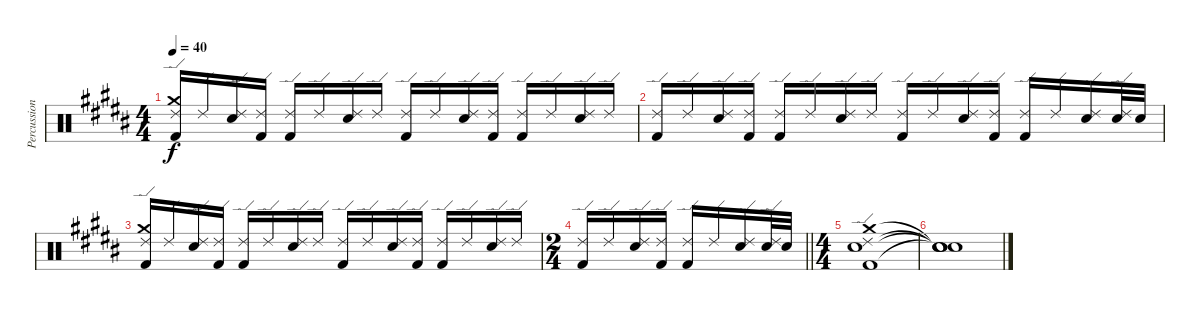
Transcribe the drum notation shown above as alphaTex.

\track ("Percussion" "Percussion") {instrument percussion}
\staff {score}
\articulation defaults
\ts (4 4)
\tempo 40
\clef neutral
\ks b
("Ride (edge) 2" "Crash medium (hit)" "Kick (hit) 2").16{dy f} "Ride (edge) 2".16 ("Ride (edge) 2" "Snare (hit) 2").16 ("Ride (edge) 2" "Kick (hit) 2").16 ("Ride (edge) 2" "Kick (hit) 2").16 "Ride (edge) 2".16 ("Ride (edge) 2" "Snare (hit) 2").16 "Ride (edge) 2".16 ("Ride (edge) 2" "Kick (hit) 2").16 "Ride (edge) 2".16 ("Ride (edge) 2" "Snare (hit) 2").16 ("Ride (edge) 2" "Kick (hit) 2").16 ("Ride (edge) 2" "Kick (hit) 2").16 "Ride (edge) 2".16 ("Ride (edge) 2" "Snare (hit) 2").16 "Ride (edge) 2".16 |
("Ride (edge) 2" "Kick (hit) 2").16 "Ride (edge) 2".16 ("Ride (edge) 2" "Snare (hit) 2").16 ("Ride (edge) 2" "Kick (hit) 2").16 ("Ride (edge) 2" "Kick (hit) 2").16 "Ride (edge) 2".16 ("Ride (edge) 2" "Snare (hit) 2").16 "Ride (edge) 2".16 ("Ride (edge) 2" "Kick (hit) 2").16 "Ride (edge) 2".16 ("Ride (edge) 2" "Snare (hit) 2").16 ("Ride (edge) 2" "Kick (hit) 2").16 ("Ride (edge) 2" "Kick (hit) 2").16 "Ride (edge) 2".16 ("Ride (edge) 2" "Snare (hit) 2").16 ("Ride (edge) 2" "Snare (hit) 2").32 "Snare (hit) 2".32 |
("Ride (edge) 2" "Crash medium (hit)" "Kick (hit) 2").16 "Ride (edge) 2".16 ("Ride (edge) 2" "Snare (hit) 2").16 ("Ride (edge) 2" "Kick (hit) 2").16 ("Ride (edge) 2" "Kick (hit) 2").16 "Ride (edge) 2".16 ("Ride (edge) 2" "Snare (hit) 2").16 "Ride (edge) 2".16 ("Ride (edge) 2" "Kick (hit) 2").16 "Ride (edge) 2".16 ("Ride (edge) 2" "Snare (hit) 2").16 ("Ride (edge) 2" "Kick (hit) 2").16 ("Ride (edge) 2" "Kick (hit) 2").16 "Ride (edge) 2".16 ("Ride (edge) 2" "Snare (hit) 2").16 "Ride (edge) 2".16 |
\ts (2 4)
\barLineRight lightlight
("Ride (edge) 2" "Kick (hit) 2").16 "Ride (edge) 2".16 ("Ride (edge) 2" "Snare (hit) 2").16 ("Ride (edge) 2" "Kick (hit) 2").16 ("Ride (edge) 2" "Kick (hit) 2").16 "Ride (edge) 2".16 ("Ride (edge) 2" "Snare (hit) 2").16 ("Ride (edge) 2" "Snare (hit) 2").32 "Snare (hit) 2".32 |
\ts (4 4)
("Ride (edge) 2" "Crash medium (hit)" "Snare (hit) 2" "Kick (hit) 2").1 |
("Snare (hit)"{t} "Snare (hit)"{t} "Snare (hit)"{t} "Snare (hit)"{t}).1
